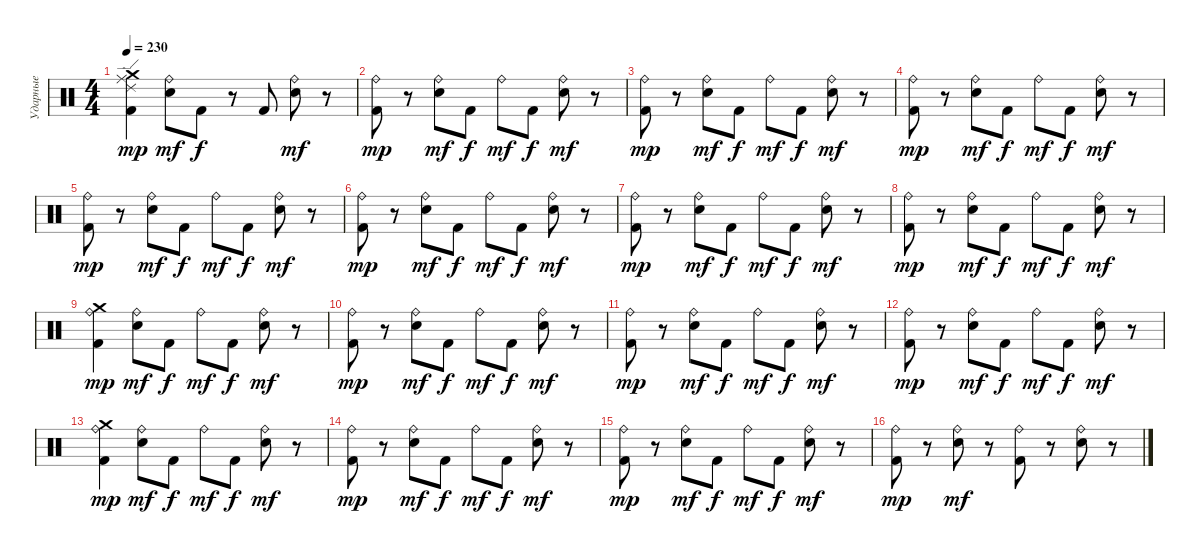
\track ("Ударные" "Ударные") {instrument percussion}
\staff {score}
\articulation defaults
\ts (4 4)
\tempo 230
\clef neutral
\ks c
("Crash medium (hit)" "Ride (edge) 2" "Ride (middle)" "Kick (hit) 2").4{dy mp} ("Ride (bell)" "Snare (hit) 2").8{dy mf} "Kick (hit) 2".8{dy f} r.8 "Kick (hit) 2".8 ("Ride (bell)" "Snare (hit) 2").8{dy mf} r.8 |
("Ride (bell)" "Kick (hit) 2").8{dy mp} r.8 ("Ride (bell)" "Snare (hit) 2").8{dy mf} "Kick (hit) 2".8{dy f} "Ride (bell)".8{dy mf} "Kick (hit) 2".8{dy f} ("Ride (bell)" "Snare (hit) 2").8{dy mf} r.8 |
("Ride (bell)" "Kick (hit) 2").8{dy mp} r.8 ("Ride (bell)" "Snare (hit) 2").8{dy mf} "Kick (hit) 2".8{dy f} "Ride (bell)".8{dy mf} "Kick (hit) 2".8{dy f} ("Ride (bell)" "Snare (hit) 2").8{dy mf} r.8 |
("Ride (bell)" "Kick (hit) 2").8{dy mp} r.8 ("Ride (bell)" "Snare (hit) 2").8{dy mf} "Kick (hit) 2".8{dy f} "Ride (bell)".8{dy mf} "Kick (hit) 2".8{dy f} ("Ride (bell)" "Snare (hit) 2").8{dy mf} r.8 |
("Ride (bell)" "Kick (hit) 2").8{dy mp} r.8 ("Ride (bell)" "Snare (hit) 2").8{dy mf} "Kick (hit) 2".8{dy f} "Ride (bell)".8{dy mf} "Kick (hit) 2".8{dy f} ("Ride (bell)" "Snare (hit) 2").8{dy mf} r.8 |
("Ride (bell)" "Kick (hit) 2").8{dy mp} r.8 ("Ride (bell)" "Snare (hit) 2").8{dy mf} "Kick (hit) 2".8{dy f} "Ride (bell)".8{dy mf} "Kick (hit) 2".8{dy f} ("Ride (bell)" "Snare (hit) 2").8{dy mf} r.8 |
("Ride (bell)" "Kick (hit) 2").8{dy mp} r.8 ("Ride (bell)" "Snare (hit) 2").8{dy mf} "Kick (hit) 2".8{dy f} "Ride (bell)".8{dy mf} "Kick (hit) 2".8{dy f} ("Ride (bell)" "Snare (hit) 2").8{dy mf} r.8 |
("Ride (bell)" "Kick (hit) 2").8{dy mp} r.8 ("Ride (bell)" "Snare (hit) 2").8{dy mf} "Kick (hit) 2".8{dy f} "Ride (bell)".8{dy mf} "Kick (hit) 2".8{dy f} ("Ride (bell)" "Snare (hit) 2").8{dy mf} r.8 |
("Crash medium (hit)" "Ride (bell)" "Kick (hit) 2").4{dy mp} ("Ride (bell)" "Snare (hit) 2").8{dy mf} "Kick (hit) 2".8{dy f} "Ride (bell)".8{dy mf} "Kick (hit) 2".8{dy f} ("Ride (bell)" "Snare (hit) 2").8{dy mf} r.8 |
("Ride (bell)" "Kick (hit) 2").8{dy mp} r.8 ("Ride (bell)" "Snare (hit) 2").8{dy mf} "Kick (hit) 2".8{dy f} "Ride (bell)".8{dy mf} "Kick (hit) 2".8{dy f} ("Ride (bell)" "Snare (hit) 2").8{dy mf} r.8 |
("Ride (bell)" "Kick (hit) 2").8{dy mp} r.8 ("Ride (bell)" "Snare (hit) 2").8{dy mf} "Kick (hit) 2".8{dy f} "Ride (bell)".8{dy mf} "Kick (hit) 2".8{dy f} ("Ride (bell)" "Snare (hit) 2").8{dy mf} r.8 |
("Ride (bell)" "Kick (hit) 2").8{dy mp} r.8 ("Ride (bell)" "Snare (hit) 2").8{dy mf} "Kick (hit) 2".8{dy f} "Ride (bell)".8{dy mf} "Kick (hit) 2".8{dy f} ("Ride (bell)" "Snare (hit) 2").8{dy mf} r.8 |
("Crash medium (hit)" "Ride (bell)" "Kick (hit) 2").4{dy mp} ("Ride (bell)" "Snare (hit) 2").8{dy mf} "Kick (hit) 2".8{dy f} "Ride (bell)".8{dy mf} "Kick (hit) 2".8{dy f} ("Ride (bell)" "Snare (hit) 2").8{dy mf} r.8 |
("Ride (bell)" "Kick (hit) 2").8{dy mp} r.8 ("Ride (bell)" "Snare (hit) 2").8{dy mf} "Kick (hit) 2".8{dy f} "Ride (bell)".8{dy mf} "Kick (hit) 2".8{dy f} ("Ride (bell)" "Snare (hit) 2").8{dy mf} r.8 |
("Ride (bell)" "Kick (hit) 2").8{dy mp} r.8 ("Ride (bell)" "Snare (hit) 2").8{dy mf} "Kick (hit) 2".8{dy f} "Ride (bell)".8{dy mf} "Kick (hit) 2".8{dy f} ("Ride (bell)" "Snare (hit) 2").8{dy mf} r.8 |
("Ride (bell)" "Kick (hit) 2").8{dy mp} r.8 ("Ride (bell)" "Snare (hit) 2").8{dy mf} r.8 ("Kick (hit) 2" "Ride (bell)").8 r.8 ("Ride (bell)" "Snare (hit) 2").8 r.8
